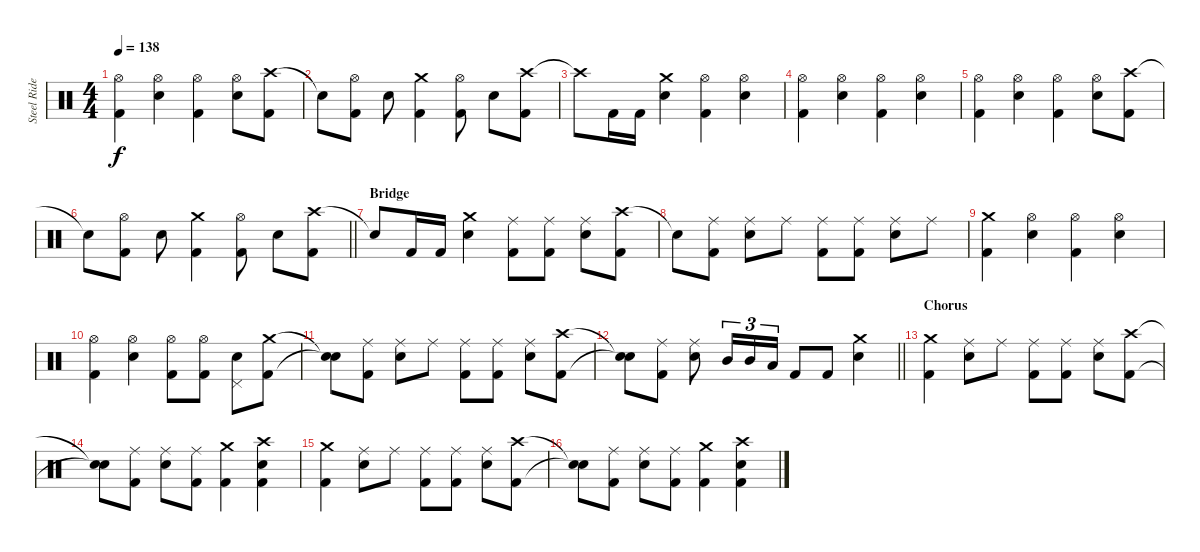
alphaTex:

\track ("Steel Rider" "Steel Ride") {instrument percussion}
\staff {score}
\articulation defaults
\ts (4 4)
\tempo 138
\clef neutral
\ks c
("Hi-Hat (open)" "Kick (hit) 2").4{dy f} ("Hi-Hat (open)" "Electric Snare (hit)").4 ("Hi-Hat (open)" "Kick (hit) 2").4 ("Hi-Hat (open)" "Electric Snare (hit)").8 ("Crash high (hit)" "Kick (hit) 2").8 |
"Snare (hit)"{t}.8 ("Hi-Hat (open)" "Kick (hit) 2").8 "Electric Snare (hit)".8 ("Crash medium (hit)" "Kick (hit) 2").4 ("Hi-Hat (open)" "Kick (hit) 2").8 "Electric Snare (hit)".8 ("Crash high (hit)" "Kick (hit) 2").8 |
"Crash high (hit)"{t}.8 "Kick (hit) 2".16 "Kick (hit) 2".16 ("Crash medium (hit)" "Electric Snare (hit)").4 ("Hi-Hat (open)" "Kick (hit) 2").4 ("Hi-Hat (open)" "Electric Snare (hit)").4 |
("Hi-Hat (open)" "Kick (hit) 2").4 ("Hi-Hat (open)" "Electric Snare (hit)").4 ("Hi-Hat (open)" "Kick (hit) 2").4 ("Hi-Hat (open)" "Electric Snare (hit)").4 |
("Hi-Hat (open)" "Kick (hit) 2").4 ("Hi-Hat (open)" "Electric Snare (hit)").4 ("Hi-Hat (open)" "Kick (hit) 2").4 ("Hi-Hat (open)" "Electric Snare (hit)").8 ("Crash high (hit)" "Kick (hit) 2").8 |
\barLineRight lightlight "Snare (hit)"{t}.8
("Hi-Hat (open)" "Kick (hit) 2").8 "Electric Snare (hit)".8 ("Crash medium (hit)" "Kick (hit) 2").4 ("Hi-Hat (open)" "Kick (hit) 2").8 "Electric Snare (hit)".8 ("Crash high (hit)" "Kick (hit) 2").8 |
\section ("" "Bridge")
"Snare (hit)"{t}.8 "Kick (hit) 2".16 "Kick (hit) 2".16 ("Crash medium (hit)" "Electric Snare (hit)").4 ("Ride (middle)" "Kick (hit) 2").8 ("Ride (middle)" "Kick (hit) 2").8 ("Ride (middle)" "Electric Snare (hit)").8 ("Crash high (hit)" "Kick (hit) 2").8 |
"Snare (hit)"{t}.8 ("Ride (middle)" "Kick (hit) 2").8 ("Ride (middle)" "Electric Snare (hit)").8 "Ride (middle)".8 ("Ride (middle)" "Kick (hit) 2").8 ("Ride (middle)" "Kick (hit) 2").8 ("Ride (middle)" "Electric Snare (hit)").8 "Ride (middle)".8 |
("Crash medium (hit)" "Kick (hit) 2").4 ("Hi-Hat (open)" "Electric Snare (hit)").4 ("Hi-Hat (open)" "Kick (hit) 2").4 ("Hi-Hat (open)" "Electric Snare (hit)").4 |
("Hi-Hat (open)" "Kick (hit) 2").4 ("Hi-Hat (open)" "Electric Snare (hit)").4 ("Hi-Hat (open)" "Kick (hit) 2").8 ("Hi-Hat (open)" "Kick (hit) 2").8 ("Pedal Hi-Hat (hit)" "Electric Snare (hit)").8 ("Crash medium (hit)" "Kick (hit) 2").8 |
("Snare (hit)"{t} "Snare (hit)"{t}).8 ("Ride (middle)" "Kick (hit) 2").8 ("Ride (middle)" "Electric Snare (hit)").8 "Ride (middle)".8 ("Ride (middle)" "Kick (hit) 2").8 ("Ride (middle)" "Kick (hit) 2").8 ("Ride (middle)" "Electric Snare (hit)").8 ("Crash high (hit)" "Kick (hit) 2").8 |
\barLineRight lightlight
("Snare (hit)"{t} "Snare (hit)"{t}).8 ("Ride (middle)" "Kick (hit) 2").8 ("Ride (middle)" "Electric Snare (hit)").8 "Mid Tom (hit)".16{tu (3 2)} "Mid Tom (hit)".16{tu (3 2)} "Low Tom (hit)".16{tu (3 2)} "Kick (hit) 2".8 "Kick (hit) 2".8 ("Crash medium (hit)" "Electric Snare (hit)").4 |
\section ("" "Chorus")
("Crash medium (hit)" "Kick (hit) 2").4 ("Ride (middle)" "Electric Snare (hit)").8 "Ride (middle)".8 ("Ride (middle)" "Kick (hit) 2").8 ("Ride (middle)" "Kick (hit) 2").8 ("Ride (middle)" "Electric Snare (hit)").8 ("Crash high (hit)" "Kick (hit) 2").8 |
("Snare (hit)"{t} "Snare (hit)"{t}).8 ("Ride (middle)" "Kick (hit) 2").8 ("Ride (middle)" "Electric Snare (hit)").8 ("Ride (middle)" "Kick (hit) 2").8 ("Crash medium (hit)" "Kick (hit) 2").4 ("Crash high (hit)" "Electric Snare (hit)" "Kick (hit) 2").4 |
("Crash medium (hit)" "Kick (hit) 2").4 ("Ride (middle)" "Electric Snare (hit)").8 "Ride (middle)".8 ("Ride (middle)" "Kick (hit) 2").8 ("Ride (middle)" "Kick (hit) 2").8 ("Ride (middle)" "Electric Snare (hit)").8 ("Crash high (hit)" "Kick (hit) 2").8 |
("Snare (hit)"{t} "Snare (hit)"{t}).8 ("Ride (middle)" "Kick (hit) 2").8 ("Ride (middle)" "Electric Snare (hit)").8 ("Ride (middle)" "Kick (hit) 2").8 ("Crash medium (hit)" "Kick (hit) 2").4 ("Crash high (hit)" "Electric Snare (hit)" "Kick (hit) 2").4
